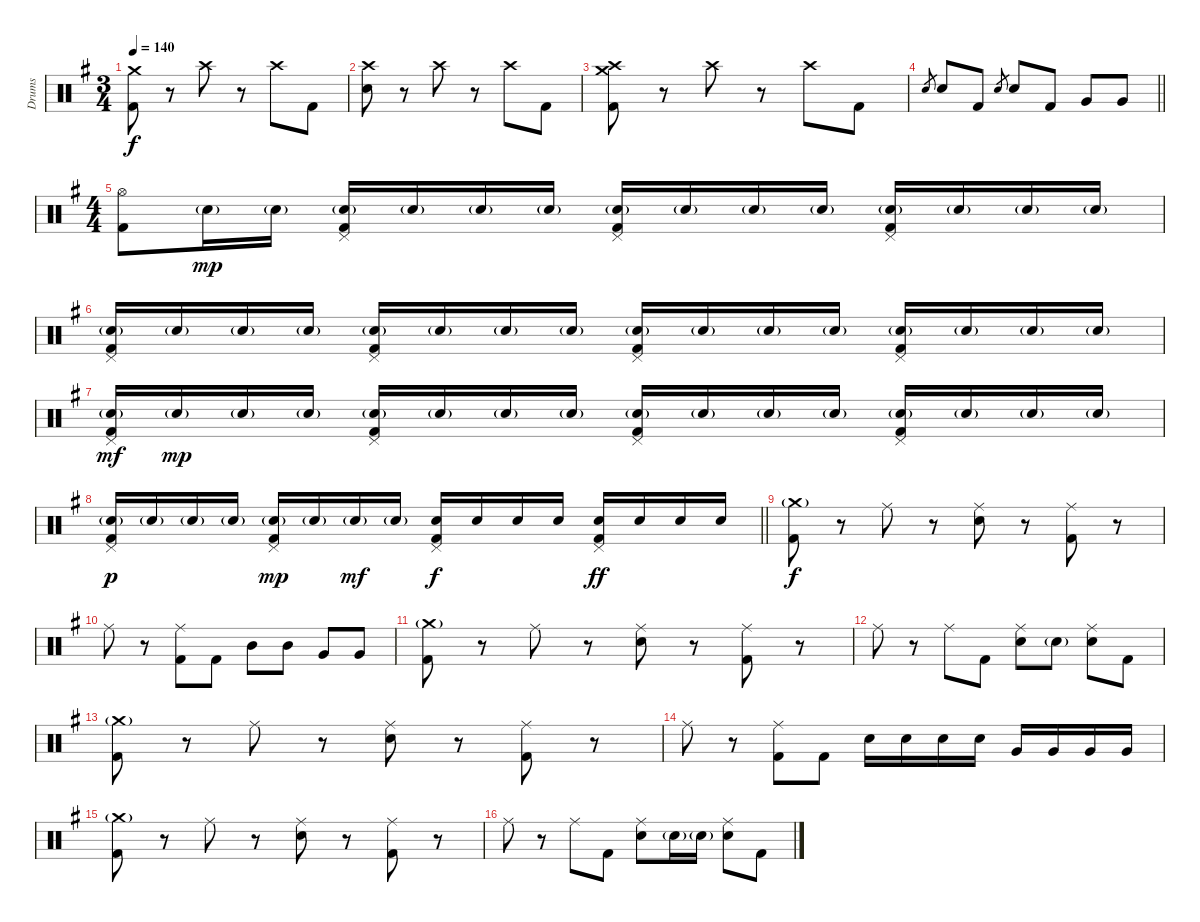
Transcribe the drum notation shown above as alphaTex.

\track ("Drums" "Drums") {instrument percussion}
\staff {score}
\articulation defaults
\ts (3 4)
\tempo 140
\clef neutral
\ks eminor
("Crash medium (hit)" "Kick (hit) 2").8{dy f} r.8 "Crash high (hit)".8 r.8 "Crash high (hit)".8 "Kick (hit) 2".8 |
("Crash high (hit)" "Snare (hit) 2").8 r.8 "Crash high (hit)".8 r.8 "Crash high (hit)".8 "Kick (hit) 2".8 |
("Crash medium (hit)" "Crash high (hit)" "Kick (hit) 2").8 r.8 "Crash high (hit)".8 r.8 "Crash high (hit)".8 "Kick (hit) 2".8 |
\barLineRight lightlight "Snare (hit) 2".8{gr} "Snare (hit) 2".8 "Kick (hit) 2".8 "Snare (hit) 2".8{gr} "Snare (hit) 2".8 "Kick (hit) 2".8 "Very Low Tom (hit)".8 "Very Low Tom (hit)".8
|
\ts (4 4)
("Hi-Hat (open)" "Kick (hit) 2").8 "Snare (hit) 2"{g}.16{dy mp} "Snare (hit) 2"{g}.16 ("Pedal Hi-Hat (hit)" "Snare (hit) 2"{g} "Kick (hit) 2").16 "Snare (hit) 2"{g}.16 "Snare (hit) 2"{g}.16 "Snare (hit) 2"{g}.16 ("Pedal Hi-Hat (hit)" "Snare (hit) 2"{g} "Kick (hit) 2").16 "Snare (hit) 2"{g}.16 "Snare (hit) 2"{g}.16 "Snare (hit) 2"{g}.16 ("Pedal Hi-Hat (hit)" "Snare (hit) 2"{g} "Kick (hit) 2").16 "Snare (hit) 2"{g}.16 "Snare (hit) 2"{g}.16 "Snare (hit) 2"{g}.16 |
("Pedal Hi-Hat (hit)" "Snare (hit) 2"{g} "Kick (hit) 2").16 "Snare (hit) 2"{g}.16 "Snare (hit) 2"{g}.16 "Snare (hit) 2"{g}.16 ("Pedal Hi-Hat (hit)" "Snare (hit) 2"{g} "Kick (hit) 2").16 "Snare (hit) 2"{g}.16 "Snare (hit) 2"{g}.16 "Snare (hit) 2"{g}.16 ("Pedal Hi-Hat (hit)" "Snare (hit) 2"{g} "Kick (hit) 2").16 "Snare (hit) 2"{g}.16 "Snare (hit) 2"{g}.16 "Snare (hit) 2"{g}.16 ("Pedal Hi-Hat (hit)" "Snare (hit) 2"{g} "Kick (hit) 2").16 "Snare (hit) 2"{g}.16 "Snare (hit) 2"{g}.16 "Snare (hit) 2"{g}.16 |
("Pedal Hi-Hat (hit)" "Snare (hit) 2"{g} "Kick (hit) 2").16{dy mf} "Snare (hit) 2"{g}.16{dy mp} "Snare (hit) 2"{g}.16 "Snare (hit) 2"{g}.16 ("Pedal Hi-Hat (hit)" "Snare (hit) 2"{g} "Kick (hit) 2").16 "Snare (hit) 2"{g}.16 "Snare (hit) 2"{g}.16 "Snare (hit) 2"{g}.16 ("Pedal Hi-Hat (hit)" "Snare (hit) 2"{g} "Kick (hit) 2").16 "Snare (hit) 2"{g}.16 "Snare (hit) 2"{g}.16 "Snare (hit) 2"{g}.16 ("Pedal Hi-Hat (hit)" "Snare (hit) 2"{g} "Kick (hit) 2").16 "Snare (hit) 2"{g}.16 "Snare (hit) 2"{g}.16 "Snare (hit) 2"{g}.16 |
\barLineRight lightlight
("Pedal Hi-Hat (hit)" "Snare (hit) 2"{g} "Kick (hit) 2").16{dy p} "Snare (hit) 2"{g}.16 "Snare (hit) 2"{g}.16 "Snare (hit) 2"{g}.16 ("Pedal Hi-Hat (hit)" "Snare (hit) 2"{g} "Kick (hit) 2").16{dy mp} "Snare (hit) 2"{g}.16 "Snare (hit) 2"{g}.16{dy mf} "Snare (hit) 2"{g}.16 ("Pedal Hi-Hat (hit)" "Snare (hit) 2" "Kick (hit) 2").16{dy f} "Snare (hit) 2".16 "Snare (hit) 2".16 "Snare (hit) 2".16 ("Pedal Hi-Hat (hit)" "Snare (hit) 2" "Kick (hit) 2").16{dy ff} "Snare (hit) 2".16 "Snare (hit) 2".16 "Snare (hit) 2".16 |
("Crash medium (hit)"{g} "Kick (hit) 2").8{dy f} r.8 "Ride (middle)".8 r.8 ("Ride (middle)" "Snare (hit) 2").8 r.8 ("Ride (middle)" "Kick (hit) 2").8 r.8 |
"Ride (middle)".8 r.8 ("Ride (middle)" "Kick (hit) 2").8 "Kick (hit) 2".8 "Mid Tom (hit)".8 "Mid Tom (hit)".8 "Very Low Tom (hit)".8 "Very Low Tom (hit)".8 |
("Crash medium (hit)"{g} "Kick (hit) 2").8 r.8 "Ride (middle)".8 r.8 ("Ride (middle)" "Snare (hit) 2").8 r.8 ("Ride (middle)" "Kick (hit) 2").8 r.8 |
"Ride (middle)".8 r.8 "Ride (middle)".8 "Kick (hit) 2".8 ("Ride (middle)" "Snare (hit) 2").8 "Snare (hit) 2"{g}.8 ("Ride (middle)" "Snare (hit) 2").8 "Kick (hit) 2".8 |
("Crash medium (hit)"{g} "Kick (hit) 2").8 r.8 "Ride (middle)".8 r.8 ("Ride (middle)" "Snare (hit) 2").8 r.8 ("Ride (middle)" "Kick (hit) 2").8 r.8 |
"Ride (middle)".8 r.8 ("Ride (middle)" "Kick (hit) 2").8 "Kick (hit) 2".8 "Snare (hit) 2".16 "Snare (hit) 2".16 "Snare (hit) 2".16 "Snare (hit) 2".16 "Very Low Tom (hit)".16 "Very Low Tom (hit)".16 "Very Low Tom (hit)".16 "Very Low Tom (hit)".16 |
("Crash medium (hit)"{g} "Kick (hit) 2").8 r.8 "Ride (middle)".8 r.8 ("Ride (middle)" "Snare (hit) 2").8 r.8 ("Ride (middle)" "Kick (hit) 2").8 r.8 |
"Ride (middle)".8 r.8 "Ride (middle)".8 "Kick (hit) 2".8 ("Ride (middle)" "Snare (hit) 2").8 "Snare (hit) 2"{g}.16 "Snare (hit) 2"{g}.16 ("Ride (middle)" "Snare (hit) 2").8 "Kick (hit) 2".8
